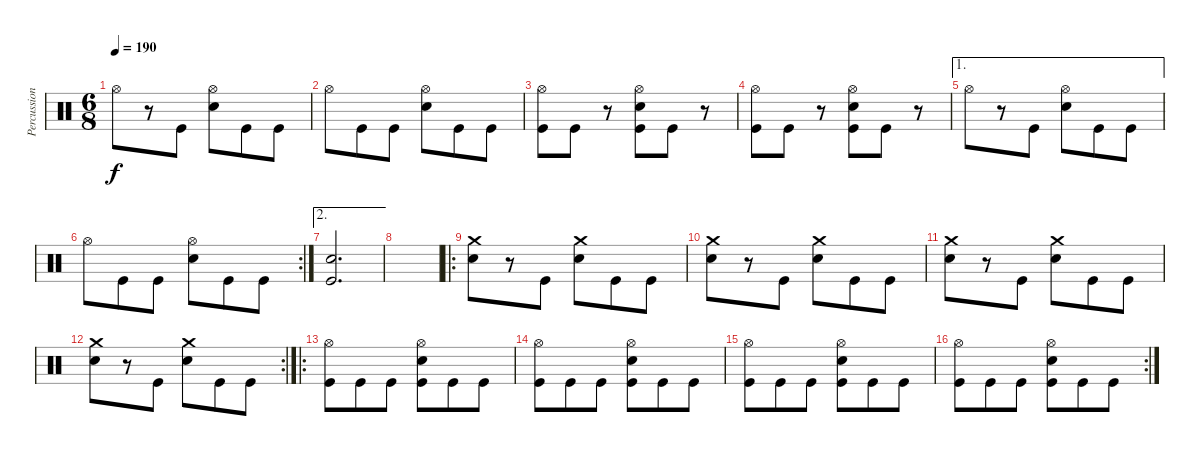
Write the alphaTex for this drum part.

\track ("Percussion" "Percussion") {instrument percussion}
\staff {score}
\articulation defaults
\ts (6 8)
\tempo 190
\clef neutral
\ks c "Hi-Hat (open)".8{dy f}
r.8 "Kick (hit)".8 ("Hi-Hat (open)" "Snare (hit) 2").8 "Kick (hit)".8 "Kick (hit)".8 |
"Hi-Hat (open)".8 "Kick (hit)".8 "Kick (hit)".8 ("Hi-Hat (open)" "Snare (hit) 2").8 "Kick (hit)".8 "Kick (hit)".8 |
("Hi-Hat (open)" "Kick (hit)").8 "Kick (hit)".8 r.8 ("Hi-Hat (open)" "Snare (hit) 2" "Kick (hit)").8 "Kick (hit)".8 r.8 |
("Hi-Hat (open)" "Kick (hit)").8 "Kick (hit)".8 r.8 ("Hi-Hat (open)" "Snare (hit) 2" "Kick (hit)").8 "Kick (hit)".8 r.8 |
\ae 1 "Hi-Hat (open)".8
r.8 "Kick (hit)".8 ("Hi-Hat (open)" "Snare (hit) 2").8 "Kick (hit)".8 "Kick (hit)".8 |
\rc 2 "Hi-Hat (open)".8 "Kick (hit)".8 "Kick (hit)".8
("Hi-Hat (open)" "Snare (hit) 2").8 "Kick (hit)".8 "Kick (hit)".8 |
\ae 2
("Snare (hit) 2" "Kick (hit)").2{d} |
|
\ro
("Crash medium (hit)" "Snare (hit) 2").8 r.8 "Kick (hit)".8 ("Crash medium (hit)" "Snare (hit) 2").8 "Kick (hit)".8 "Kick (hit)".8 |
("Crash medium (hit)" "Snare (hit) 2").8 r.8 "Kick (hit)".8 ("Crash medium (hit)" "Snare (hit) 2").8 "Kick (hit)".8 "Kick (hit)".8 |
("Crash medium (hit)" "Snare (hit) 2").8 r.8 "Kick (hit)".8 ("Crash medium (hit)" "Snare (hit) 2").8 "Kick (hit)".8 "Kick (hit)".8 |
\rc 2
("Crash medium (hit)" "Snare (hit) 2").8 r.8 "Kick (hit)".8 ("Crash medium (hit)" "Snare (hit) 2").8 "Kick (hit)".8 "Kick (hit)".8 |
\ro
("Hi-Hat (open)" "Kick (hit)").8 "Kick (hit)".8 "Kick (hit)".8 ("Hi-Hat (open)" "Snare (hit) 2" "Kick (hit)").8 "Kick (hit)".8 "Kick (hit)".8 |
("Hi-Hat (open)" "Kick (hit)").8 "Kick (hit)".8 "Kick (hit)".8 ("Hi-Hat (open)" "Snare (hit) 2" "Kick (hit)").8 "Kick (hit)".8 "Kick (hit)".8 |
("Hi-Hat (open)" "Kick (hit)").8 "Kick (hit)".8 "Kick (hit)".8 ("Hi-Hat (open)" "Snare (hit) 2" "Kick (hit)").8 "Kick (hit)".8 "Kick (hit)".8 |
\rc 2
("Hi-Hat (open)" "Kick (hit)").8 "Kick (hit)".8 "Kick (hit)".8 ("Hi-Hat (open)" "Snare (hit) 2" "Kick (hit)").8 "Kick (hit)".8 "Kick (hit)".8
